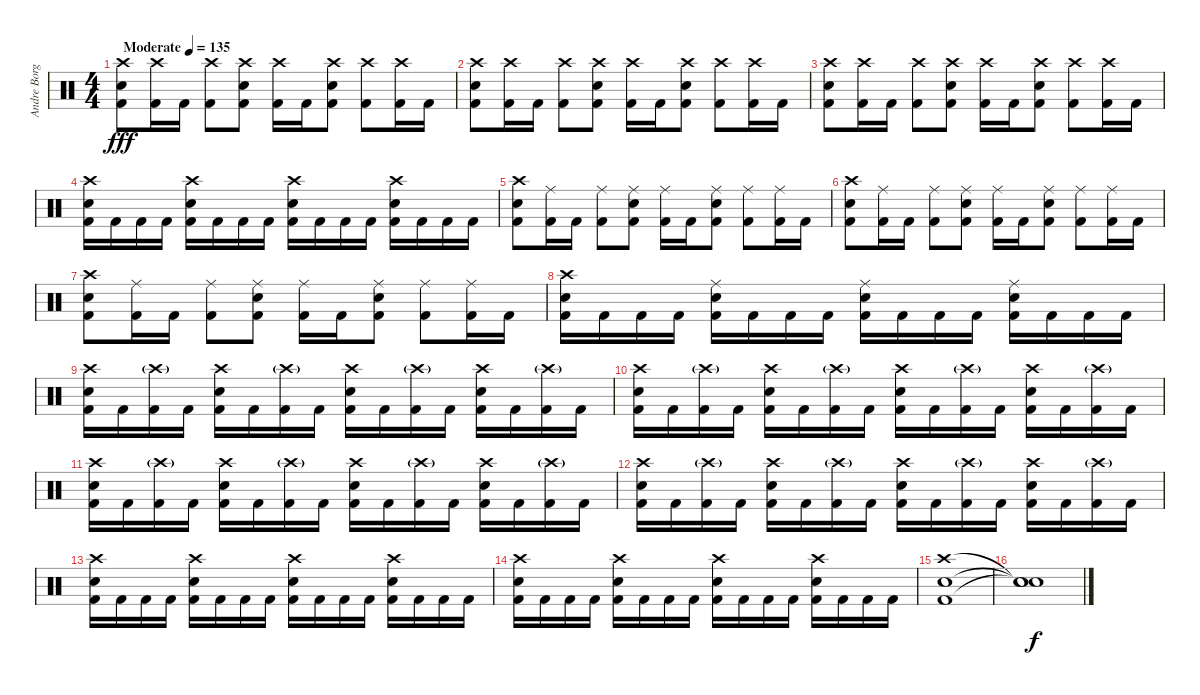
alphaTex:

\track ("Andre Borgman" "Andre Borg") {instrument percussion}
\staff {score}
\articulation defaults
\ts (4 4)
\tempo (135 "Moderate")
\clef neutral
\ks c
("Crash high (hit)" "Snare (hit) 2" "Kick (hit) 2").8{dy fff} ("Crash high (hit)" "Kick (hit) 2").16 "Kick (hit) 2".16 ("Crash high (hit)" "Kick (hit) 2").8 ("Crash high (hit)" "Snare (hit) 2" "Kick (hit) 2").8 ("Crash high (hit)" "Kick (hit) 2").16 "Kick (hit) 2".16 ("Crash high (hit)" "Snare (hit) 2" "Kick (hit) 2").8 ("Crash high (hit)" "Kick (hit) 2").8 ("Crash high (hit)" "Kick (hit) 2").16 "Kick (hit) 2".16 |
("Crash high (hit)" "Snare (hit) 2" "Kick (hit) 2").8 ("Crash high (hit)" "Kick (hit) 2").16 "Kick (hit) 2".16 ("Crash high (hit)" "Kick (hit) 2").8 ("Crash high (hit)" "Snare (hit) 2" "Kick (hit) 2").8 ("Crash high (hit)" "Kick (hit) 2").16 "Kick (hit) 2".16 ("Crash high (hit)" "Snare (hit) 2" "Kick (hit) 2").8 ("Crash high (hit)" "Kick (hit) 2").8 ("Crash high (hit)" "Kick (hit) 2").16 "Kick (hit) 2".16 |
("Crash high (hit)" "Snare (hit) 2" "Kick (hit) 2").8 ("Crash high (hit)" "Kick (hit) 2").16 "Kick (hit) 2".16 ("Crash high (hit)" "Kick (hit) 2").8 ("Crash high (hit)" "Snare (hit) 2" "Kick (hit) 2").8 ("Crash high (hit)" "Kick (hit) 2").16 "Kick (hit) 2".16 ("Crash high (hit)" "Snare (hit) 2" "Kick (hit) 2").8 ("Crash high (hit)" "Kick (hit) 2").8 ("Crash high (hit)" "Kick (hit) 2").16 "Kick (hit) 2".16 |
("Crash high (hit)" "Snare (hit) 2" "Kick (hit) 2").16 "Kick (hit) 2".16 "Kick (hit) 2".16 "Kick (hit) 2".16 ("Crash high (hit)" "Snare (hit) 2" "Kick (hit) 2").16 "Kick (hit) 2".16 "Kick (hit) 2".16 "Kick (hit) 2".16 ("Crash high (hit)" "Snare (hit) 2" "Kick (hit) 2").16 "Kick (hit) 2".16 "Kick (hit) 2".16 "Kick (hit) 2".16 ("Crash high (hit)" "Snare (hit) 2" "Kick (hit) 2").16 "Kick (hit) 2".16 "Kick (hit) 2".16 "Kick (hit) 2".16 |
("Crash high (hit)" "Snare (hit) 2" "Kick (hit) 2").8 ("Ride (middle)" "Kick (hit) 2").16 "Kick (hit) 2".16 ("Ride (middle)" "Kick (hit) 2").8 ("Ride (middle)" "Snare (hit) 2" "Kick (hit) 2").8 ("Ride (middle)" "Kick (hit) 2").16 "Kick (hit) 2".16 ("Ride (middle)" "Snare (hit) 2" "Kick (hit) 2").8 ("Ride (middle)" "Kick (hit) 2").8 ("Ride (middle)" "Kick (hit) 2").16 "Kick (hit) 2".16 |
("Crash high (hit)" "Snare (hit) 2" "Kick (hit) 2").8 ("Ride (middle)" "Kick (hit) 2").16 "Kick (hit) 2".16 ("Ride (middle)" "Kick (hit) 2").8 ("Ride (middle)" "Snare (hit) 2" "Kick (hit) 2").8 ("Ride (middle)" "Kick (hit) 2").16 "Kick (hit) 2".16 ("Ride (middle)" "Snare (hit) 2" "Kick (hit) 2").8 ("Ride (middle)" "Kick (hit) 2").8 ("Ride (middle)" "Kick (hit) 2").16 "Kick (hit) 2".16 |
("Crash high (hit)" "Snare (hit) 2" "Kick (hit) 2").8 ("Ride (middle)" "Kick (hit) 2").16 "Kick (hit) 2".16 ("Ride (middle)" "Kick (hit) 2").8 ("Ride (middle)" "Snare (hit) 2" "Kick (hit) 2").8 ("Ride (middle)" "Kick (hit) 2").16 "Kick (hit) 2".16 ("Ride (middle)" "Snare (hit) 2" "Kick (hit) 2").8 ("Ride (middle)" "Kick (hit) 2").8 ("Ride (middle)" "Kick (hit) 2").16 "Kick (hit) 2".16 |
("Crash high (hit)" "Snare (hit) 2" "Kick (hit) 2").16 "Kick (hit) 2".16 "Kick (hit) 2".16 "Kick (hit) 2".16 ("Ride (middle)" "Snare (hit) 2" "Kick (hit) 2").16 "Kick (hit) 2".16 "Kick (hit) 2".16 "Kick (hit) 2".16 ("Ride (middle)" "Snare (hit) 2" "Kick (hit) 2").16 "Kick (hit) 2".16 "Kick (hit) 2".16 "Kick (hit) 2".16 ("Ride (middle)" "Snare (hit) 2" "Kick (hit) 2").16 "Kick (hit) 2".16 "Kick (hit) 2".16 "Kick (hit) 2".16 |
("Crash high (hit)" "Snare (hit) 2" "Kick (hit) 2").16 "Kick (hit) 2".16 ("Crash high (hit)"{g} "Kick (hit) 2").16 "Kick (hit) 2".16 ("Crash high (hit)" "Snare (hit) 2" "Kick (hit) 2").16 "Kick (hit) 2".16 ("Crash high (hit)"{g} "Kick (hit) 2").16 "Kick (hit) 2".16 ("Crash high (hit)" "Snare (hit) 2" "Kick (hit) 2").16 "Kick (hit) 2".16 ("Crash high (hit)"{g} "Kick (hit) 2").16 "Kick (hit) 2".16 ("Crash high (hit)" "Snare (hit) 2" "Kick (hit) 2").16 "Kick (hit) 2".16 ("Crash high (hit)"{g} "Kick (hit) 2").16 "Kick (hit) 2".16 |
("Crash high (hit)" "Snare (hit) 2" "Kick (hit) 2").16 "Kick (hit) 2".16 ("Crash high (hit)"{g} "Kick (hit) 2").16 "Kick (hit) 2".16 ("Crash high (hit)" "Snare (hit) 2" "Kick (hit) 2").16 "Kick (hit) 2".16 ("Crash high (hit)"{g} "Kick (hit) 2").16 "Kick (hit) 2".16 ("Crash high (hit)" "Snare (hit) 2" "Kick (hit) 2").16 "Kick (hit) 2".16 ("Crash high (hit)"{g} "Kick (hit) 2").16 "Kick (hit) 2".16 ("Crash high (hit)" "Snare (hit) 2" "Kick (hit) 2").16 "Kick (hit) 2".16 ("Crash high (hit)"{g} "Kick (hit) 2").16 "Kick (hit) 2".16 |
("Crash high (hit)" "Snare (hit) 2" "Kick (hit) 2").16 "Kick (hit) 2".16 ("Crash high (hit)"{g} "Kick (hit) 2").16 "Kick (hit) 2".16 ("Crash high (hit)" "Snare (hit) 2" "Kick (hit) 2").16 "Kick (hit) 2".16 ("Crash high (hit)"{g} "Kick (hit) 2").16 "Kick (hit) 2".16 ("Crash high (hit)" "Snare (hit) 2" "Kick (hit) 2").16 "Kick (hit) 2".16 ("Crash high (hit)"{g} "Kick (hit) 2").16 "Kick (hit) 2".16 ("Crash high (hit)" "Snare (hit) 2" "Kick (hit) 2").16 "Kick (hit) 2".16 ("Crash high (hit)"{g} "Kick (hit) 2").16 "Kick (hit) 2".16 |
("Crash high (hit)" "Snare (hit) 2" "Kick (hit) 2").16 "Kick (hit) 2".16 ("Crash high (hit)"{g} "Kick (hit) 2").16 "Kick (hit) 2".16 ("Crash high (hit)" "Snare (hit) 2" "Kick (hit) 2").16 "Kick (hit) 2".16 ("Crash high (hit)"{g} "Kick (hit) 2").16 "Kick (hit) 2".16 ("Crash high (hit)" "Snare (hit) 2" "Kick (hit) 2").16 "Kick (hit) 2".16 ("Crash high (hit)"{g} "Kick (hit) 2").16 "Kick (hit) 2".16 ("Crash high (hit)" "Snare (hit) 2" "Kick (hit) 2").16 "Kick (hit) 2".16 ("Crash high (hit)"{g} "Kick (hit) 2").16 "Kick (hit) 2".16 |
("Crash high (hit)" "Snare (hit) 2" "Kick (hit) 2").16 "Kick (hit) 2".16 "Kick (hit) 2".16 "Kick (hit) 2".16 ("Crash high (hit)" "Snare (hit) 2" "Kick (hit) 2").16 "Kick (hit) 2".16 "Kick (hit) 2".16 "Kick (hit) 2".16 ("Crash high (hit)" "Snare (hit) 2" "Kick (hit) 2").16 "Kick (hit) 2".16 "Kick (hit) 2".16 "Kick (hit) 2".16 ("Crash high (hit)" "Snare (hit) 2" "Kick (hit) 2").16 "Kick (hit) 2".16 "Kick (hit) 2".16 "Kick (hit) 2".16 |
("Crash high (hit)" "Snare (hit) 2" "Kick (hit) 2").16 "Kick (hit) 2".16 "Kick (hit) 2".16 "Kick (hit) 2".16 ("Crash high (hit)" "Snare (hit) 2" "Kick (hit) 2").16 "Kick (hit) 2".16 "Kick (hit) 2".16 "Kick (hit) 2".16 ("Crash high (hit)" "Snare (hit) 2" "Kick (hit) 2").16 "Kick (hit) 2".16 "Kick (hit) 2".16 "Kick (hit) 2".16 ("Crash high (hit)" "Snare (hit) 2" "Kick (hit) 2").16 "Kick (hit) 2".16 "Kick (hit) 2".16 "Kick (hit) 2".16 |
("Crash high (hit)" "Snare (hit) 2" "Kick (hit) 2").1 |
("Snare (hit)"{t} "Snare (hit)"{t} "Snare (hit)"{t}).1{dy f}
